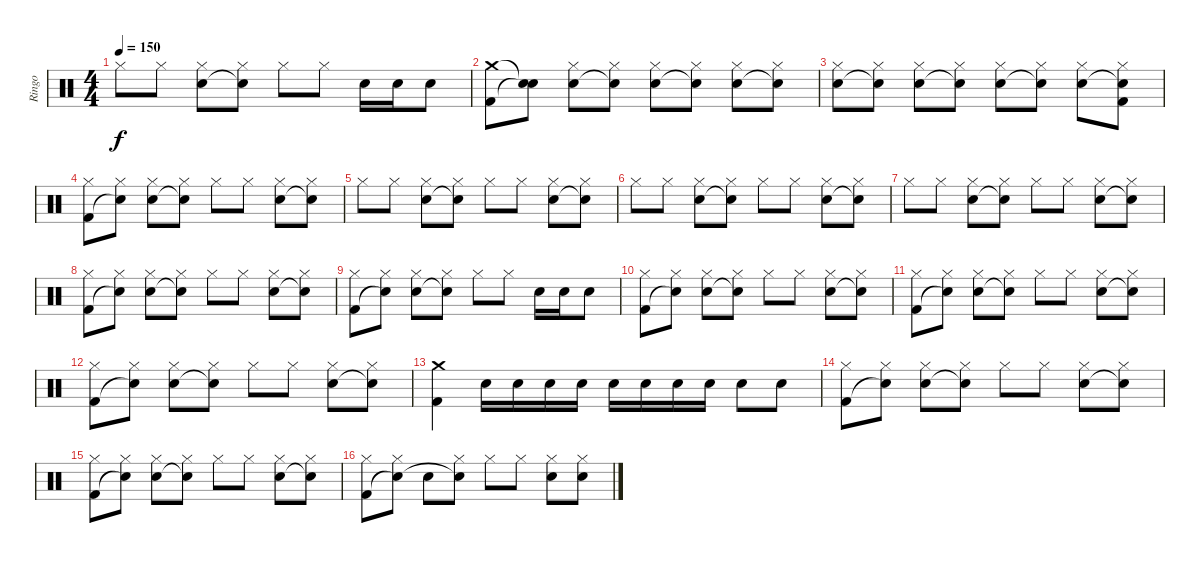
\track ("Ringo" "Ringo") {instrument percussion}
\staff {score}
\articulation defaults
\ts (4 4)
\tempo 150
\clef neutral
\ks c "Hi-Hat (closed)".8{dy f} "Hi-Hat (closed)".8
("Hi-Hat (closed)" "Snare (hit) 2").8 ("Hi-Hat (closed)" "Snare (hit)"{t}).8 "Hi-Hat (closed)".8 "Hi-Hat (closed)".8 "Snare (hit) 2".16 "Snare (hit) 2".16 "Snare (hit) 2".8 |
("Crash medium (hit)" "Kick (hit) 2").8 ("Snare (hit)"{t} "Snare (hit)"{t}).8 ("Hi-Hat (closed)" "Snare (hit) 2").8 ("Hi-Hat (closed)" "Snare (hit)"{t}).8 ("Hi-Hat (closed)" "Snare (hit) 2").8 ("Hi-Hat (closed)" "Snare (hit)"{t}).8 ("Hi-Hat (closed)" "Snare (hit) 2").8 ("Hi-Hat (closed)" "Snare (hit)"{t}).8 |
("Hi-Hat (closed)" "Snare (hit) 2").8 ("Hi-Hat (closed)" "Snare (hit)"{t}).8 ("Hi-Hat (closed)" "Snare (hit) 2").8 ("Hi-Hat (closed)" "Snare (hit)"{t}).8 ("Hi-Hat (closed)" "Snare (hit) 2").8 ("Hi-Hat (closed)" "Snare (hit)"{t}).8 ("Hi-Hat (closed)" "Snare (hit) 2").8 ("Hi-Hat (closed)" "Snare (hit)"{t} "Kick (hit) 2").8 |
("Hi-Hat (closed)" "Kick (hit) 2").8 ("Hi-Hat (closed)" "Snare (hit)"{t}).8 ("Hi-Hat (closed)" "Snare (hit) 2").8 ("Hi-Hat (closed)" "Snare (hit)"{t}).8 "Hi-Hat (closed)".8 "Hi-Hat (closed)".8 ("Hi-Hat (closed)" "Snare (hit) 2").8 ("Hi-Hat (closed)" "Snare (hit)"{t}).8 |
"Hi-Hat (closed)".8 "Hi-Hat (closed)".8 ("Hi-Hat (closed)" "Snare (hit) 2").8 ("Hi-Hat (closed)" "Snare (hit)"{t}).8 "Hi-Hat (closed)".8 "Hi-Hat (closed)".8 ("Hi-Hat (closed)" "Snare (hit) 2").8 ("Hi-Hat (closed)" "Snare (hit)"{t}).8 |
"Hi-Hat (closed)".8 "Hi-Hat (closed)".8 ("Hi-Hat (closed)" "Snare (hit) 2").8 ("Hi-Hat (closed)" "Snare (hit)"{t}).8 "Hi-Hat (closed)".8 "Hi-Hat (closed)".8 ("Hi-Hat (closed)" "Snare (hit) 2").8 ("Hi-Hat (closed)" "Snare (hit)"{t}).8 |
"Hi-Hat (closed)".8 "Hi-Hat (closed)".8 ("Hi-Hat (closed)" "Snare (hit) 2").8 ("Hi-Hat (closed)" "Snare (hit)"{t}).8 "Hi-Hat (closed)".8 "Hi-Hat (closed)".8 ("Hi-Hat (closed)" "Snare (hit) 2").8 ("Hi-Hat (closed)" "Snare (hit)"{t}).8 |
("Hi-Hat (closed)" "Kick (hit) 2").8 ("Hi-Hat (closed)" "Snare (hit)"{t}).8 ("Hi-Hat (closed)" "Snare (hit) 2").8 ("Hi-Hat (closed)" "Snare (hit)"{t}).8 "Hi-Hat (closed)".8 "Hi-Hat (closed)".8 ("Hi-Hat (closed)" "Snare (hit) 2").8 ("Hi-Hat (closed)" "Snare (hit)"{t}).8 |
("Hi-Hat (closed)" "Kick (hit) 2").8 ("Hi-Hat (closed)" "Snare (hit)"{t}).8 ("Hi-Hat (closed)" "Snare (hit) 2").8 ("Hi-Hat (closed)" "Snare (hit)"{t}).8 "Hi-Hat (closed)".8 "Hi-Hat (closed)".8 "Snare (hit) 2".16 "Snare (hit) 2".16 "Snare (hit) 2".8 |
("Hi-Hat (closed)" "Kick (hit) 2").8 ("Hi-Hat (closed)" "Snare (hit)"{t}).8 ("Hi-Hat (closed)" "Snare (hit) 2").8 ("Hi-Hat (closed)" "Snare (hit)"{t}).8 "Hi-Hat (closed)".8 "Hi-Hat (closed)".8 ("Hi-Hat (closed)" "Snare (hit) 2").8 ("Hi-Hat (closed)" "Snare (hit)"{t}).8 |
("Hi-Hat (closed)" "Kick (hit) 2").8 ("Hi-Hat (closed)" "Snare (hit)"{t}).8 ("Hi-Hat (closed)" "Snare (hit) 2").8 ("Hi-Hat (closed)" "Snare (hit)"{t}).8 "Hi-Hat (closed)".8 "Hi-Hat (closed)".8 ("Hi-Hat (closed)" "Snare (hit) 2").8 ("Hi-Hat (closed)" "Snare (hit)"{t}).8 |
("Hi-Hat (closed)" "Kick (hit) 2").8 ("Hi-Hat (closed)" "Snare (hit)"{t}).8 ("Hi-Hat (closed)" "Snare (hit) 2").8 ("Hi-Hat (closed)" "Snare (hit)"{t}).8 "Hi-Hat (closed)".8 "Hi-Hat (closed)".8 ("Hi-Hat (closed)" "Snare (hit) 2").8 ("Hi-Hat (closed)" "Snare (hit)"{t}).8 |
("Crash medium (hit)" "Kick (hit) 2").4 "Snare (hit) 2".16 "Snare (hit) 2".16 "Snare (hit) 2".16 "Snare (hit) 2".16 "Snare (hit) 2".16 "Snare (hit) 2".16 "Snare (hit) 2".16 "Snare (hit) 2".16 "Snare (hit) 2".8 "Snare (hit) 2".8 |
("Hi-Hat (closed)" "Kick (hit) 2").8 ("Hi-Hat (closed)" "Snare (hit)"{t}).8 ("Hi-Hat (closed)" "Snare (hit) 2").8 ("Hi-Hat (closed)" "Snare (hit)"{t}).8 "Hi-Hat (closed)".8 "Hi-Hat (closed)".8 ("Hi-Hat (closed)" "Snare (hit) 2").8 ("Hi-Hat (closed)" "Snare (hit)"{t}).8 |
("Hi-Hat (closed)" "Kick (hit) 2").8 ("Hi-Hat (closed)" "Snare (hit)"{t}).8 ("Hi-Hat (closed)" "Snare (hit) 2").8 ("Hi-Hat (closed)" "Snare (hit)"{t}).8 "Hi-Hat (closed)".8 "Hi-Hat (closed)".8 ("Hi-Hat (closed)" "Snare (hit) 2").8 ("Hi-Hat (closed)" "Snare (hit)"{t}).8 |
("Hi-Hat (closed)" "Kick (hit) 2").8 ("Hi-Hat (closed)" "Snare (hit)"{t}).8 "Snare (hit) 2".8 ("Hi-Hat (closed)" "Snare (hit)"{t}).8 "Hi-Hat (closed)".8 "Hi-Hat (closed)".8 ("Hi-Hat (closed)" "Snare (hit) 2").8 ("Hi-Hat (closed)" "Snare (hit) 2").8
